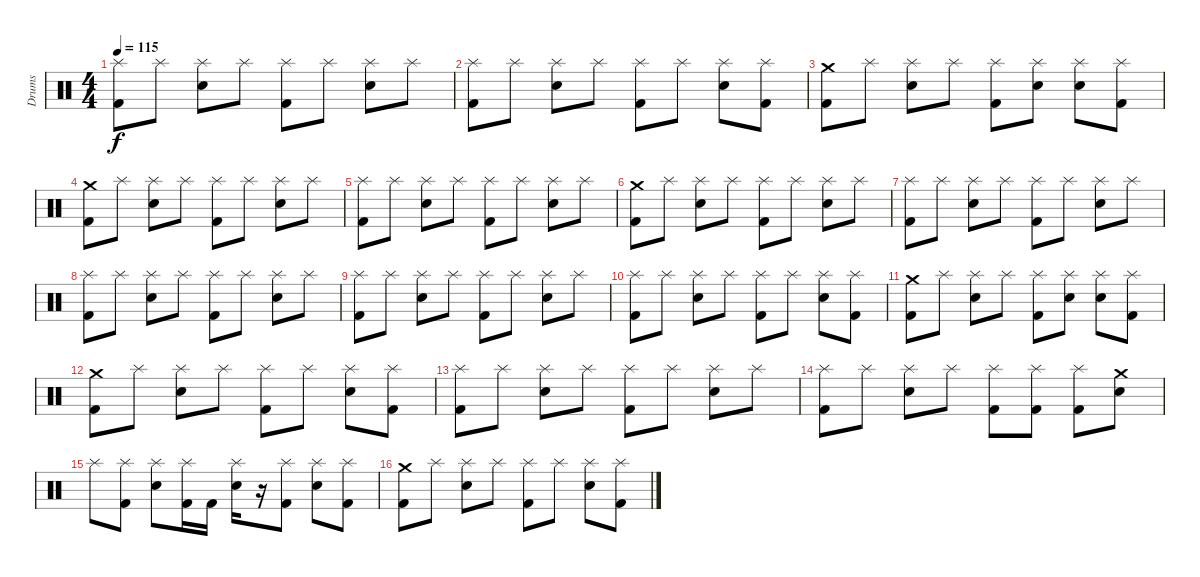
\track ("Drums" "Drums") {instrument percussion}
\staff {score}
\articulation defaults
\ts (4 4)
\tempo 115
\clef neutral
\ks c
("Splash (hit)" "Kick (hit) 2").8{dy f} "Splash (hit)".8 ("Splash (hit)" "Snare (hit) 2").8 "Splash (hit)".8 ("Splash (hit)" "Kick (hit) 2").8 "Splash (hit)".8 ("Splash (hit)" "Snare (hit) 2").8 "Splash (hit)".8 |
("Splash (hit)" "Kick (hit) 2").8 "Splash (hit)".8 ("Splash (hit)" "Snare (hit) 2").8 "Splash (hit)".8 ("Splash (hit)" "Kick (hit) 2").8 "Splash (hit)".8 ("Splash (hit)" "Snare (hit) 2").8 ("Splash (hit)" "Kick (hit) 2").8 |
("Crash medium (hit)" "Kick (hit) 2").8 "Splash (hit)".8 ("Splash (hit)" "Snare (hit) 2").8 "Splash (hit)".8 ("Splash (hit)" "Kick (hit) 2").8 ("Splash (hit)" "Snare (hit) 2").8 ("Splash (hit)" "Snare (hit) 2").8 ("Splash (hit)" "Kick (hit) 2").8 |
("Crash medium (hit)" "Kick (hit) 2").8 "Splash (hit)".8 ("Splash (hit)" "Snare (hit) 2").8 "Splash (hit)".8 ("Splash (hit)" "Kick (hit) 2").8 "Splash (hit)".8 ("Splash (hit)" "Snare (hit) 2").8 "Splash (hit)".8 |
("Splash (hit)" "Kick (hit) 2").8 "Splash (hit)".8 ("Splash (hit)" "Snare (hit) 2").8 "Splash (hit)".8 ("Splash (hit)" "Kick (hit) 2").8 "Splash (hit)".8 ("Splash (hit)" "Snare (hit) 2").8 "Splash (hit)".8 |
("Crash medium (hit)" "Kick (hit) 2").8 "Splash (hit)".8 ("Splash (hit)" "Snare (hit) 2").8 "Splash (hit)".8 ("Splash (hit)" "Kick (hit) 2").8 "Splash (hit)".8 ("Splash (hit)" "Snare (hit) 2").8 "Splash (hit)".8 |
("Splash (hit)" "Kick (hit) 2").8 "Splash (hit)".8 ("Splash (hit)" "Snare (hit) 2").8 "Splash (hit)".8 ("Splash (hit)" "Kick (hit) 2").8 "Splash (hit)".8 ("Splash (hit)" "Snare (hit) 2").8 "Splash (hit)".8 |
("Splash (hit)" "Kick (hit) 2").8 "Splash (hit)".8 ("Splash (hit)" "Snare (hit) 2").8 "Splash (hit)".8 ("Splash (hit)" "Kick (hit) 2").8 "Splash (hit)".8 ("Splash (hit)" "Snare (hit) 2").8 "Splash (hit)".8 |
("Splash (hit)" "Kick (hit) 2").8 "Splash (hit)".8 ("Splash (hit)" "Snare (hit) 2").8 "Splash (hit)".8 ("Splash (hit)" "Kick (hit) 2").8 "Splash (hit)".8 ("Splash (hit)" "Snare (hit) 2").8 "Splash (hit)".8 |
("Splash (hit)" "Kick (hit) 2").8 "Splash (hit)".8 ("Splash (hit)" "Snare (hit) 2").8 "Splash (hit)".8 ("Splash (hit)" "Kick (hit) 2").8 "Splash (hit)".8 ("Splash (hit)" "Snare (hit) 2").8 ("Splash (hit)" "Kick (hit) 2").8 |
("Crash medium (hit)" "Kick (hit) 2").8 "Splash (hit)".8 ("Splash (hit)" "Snare (hit) 2").8 "Splash (hit)".8 ("Splash (hit)" "Kick (hit) 2").8 ("Splash (hit)" "Snare (hit) 2").8 ("Splash (hit)" "Snare (hit) 2").8 ("Splash (hit)" "Kick (hit) 2").8 |
("Crash medium (hit)" "Kick (hit) 2").8 "Splash (hit)".8 ("Splash (hit)" "Snare (hit) 2").8 "Splash (hit)".8 ("Splash (hit)" "Kick (hit) 2").8 "Splash (hit)".8 ("Splash (hit)" "Snare (hit) 2").8 ("Splash (hit)" "Kick (hit) 2").8 |
("Splash (hit)" "Kick (hit) 2").8 "Splash (hit)".8 ("Splash (hit)" "Snare (hit) 2").8 "Splash (hit)".8 ("Splash (hit)" "Kick (hit) 2").8 "Splash (hit)".8 ("Splash (hit)" "Snare (hit) 2").8 "Splash (hit)".8 |
("Splash (hit)" "Kick (hit) 2").8 "Splash (hit)".8 ("Splash (hit)" "Snare (hit) 2").8 "Splash (hit)".8 ("Splash (hit)" "Kick (hit) 2").8 ("Splash (hit)" "Kick (hit) 2").8 ("Splash (hit)" "Kick (hit) 2").8 ("Crash medium (hit)" "Snare (hit) 2").8 |
"Splash (hit)".8 ("Splash (hit)" "Kick (hit) 2").8 ("Splash (hit)" "Snare (hit) 2").8 ("Splash (hit)" "Kick (hit) 2").16 "Kick (hit) 2".16 ("Splash (hit)" "Snare (hit) 2").16 r.16 ("Splash (hit)" "Kick (hit) 2").8 ("Splash (hit)" "Snare (hit) 2").8 ("Splash (hit)" "Kick (hit) 2").8 |
("Crash medium (hit)" "Kick (hit) 2").8 "Splash (hit)".8 ("Splash (hit)" "Snare (hit) 2").8 "Splash (hit)".8 ("Splash (hit)" "Kick (hit) 2").8 "Splash (hit)".8 ("Splash (hit)" "Snare (hit) 2").8 ("Splash (hit)" "Kick (hit) 2").8
